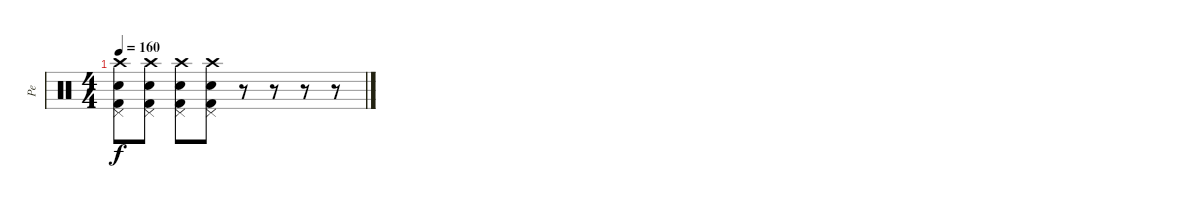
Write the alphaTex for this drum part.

\track ("Pe" "Pe") {instrument percussion}
\staff {score}
\articulation defaults
\ts (4 4)
\tempo 160
\clef neutral
\ks c
("Pedal Hi-Hat (hit)" "Kick (hit) 2" "Electric Snare (hit)" "Crash high (hit)").8{dy f} ("Pedal Hi-Hat (hit)" "Kick (hit) 2" "Electric Snare (hit)" "Crash high (hit)").8 ("Pedal Hi-Hat (hit)" "Kick (hit) 2" "Electric Snare (hit)" "Crash high (hit)").8 ("Pedal Hi-Hat (hit)" "Kick (hit) 2" "Electric Snare (hit)" "Crash high (hit)").8 r.8 r.8 r.8 r.8
